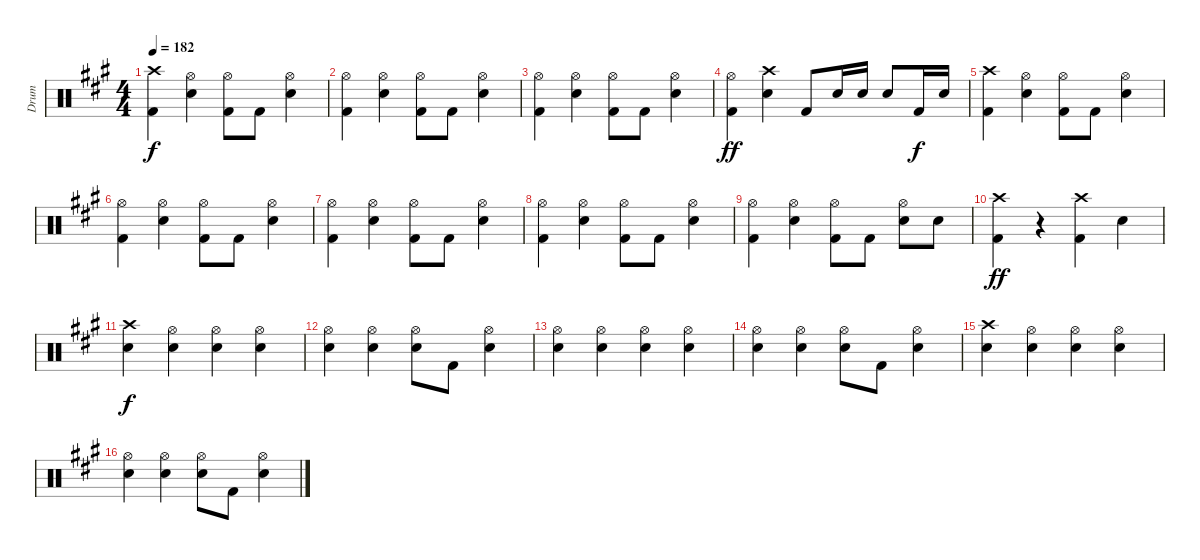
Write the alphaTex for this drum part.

\track ("Drum" "Drum") {instrument percussion}
\staff {score}
\articulation defaults
\ts (4 4)
\tempo 182
\clef neutral
\ks a
("Crash high (hit)" "Kick (hit) 2").4{dy f} ("Hi-Hat (open)" "Snare (hit) 2").4 ("Hi-Hat (open)" "Kick (hit) 2").8 "Kick (hit) 2".8 ("Hi-Hat (open)" "Snare (hit) 2").4 |
("Hi-Hat (open)" "Kick (hit) 2").4 ("Hi-Hat (open)" "Snare (hit) 2").4 ("Hi-Hat (open)" "Kick (hit) 2").8 "Kick (hit) 2".8 ("Hi-Hat (open)" "Snare (hit) 2").4 |
("Hi-Hat (open)" "Kick (hit) 2").4 ("Hi-Hat (open)" "Snare (hit) 2").4 ("Hi-Hat (open)" "Kick (hit) 2").8 "Kick (hit) 2".8 ("Hi-Hat (open)" "Snare (hit) 2").4 |
("Hi-Hat (open)" "Kick (hit) 2").4{dy ff} ("Crash high (hit)" "Snare (hit) 2").4 "Kick (hit) 2".8 "Snare (hit) 2".16 "Snare (hit) 2".16 "Snare (hit) 2".8 "Kick (hit) 2".16{dy f} "Snare (hit) 2".16 |
("Crash high (hit)" "Kick (hit) 2").4 ("Hi-Hat (open)" "Snare (hit) 2").4 ("Hi-Hat (open)" "Kick (hit) 2").8 "Kick (hit) 2".8 ("Hi-Hat (open)" "Snare (hit) 2").4 |
("Hi-Hat (open)" "Kick (hit) 2").4 ("Hi-Hat (open)" "Snare (hit) 2").4 ("Hi-Hat (open)" "Kick (hit) 2").8 "Kick (hit) 2".8 ("Hi-Hat (open)" "Snare (hit) 2").4 |
("Hi-Hat (open)" "Kick (hit) 2").4 ("Hi-Hat (open)" "Snare (hit) 2").4 ("Hi-Hat (open)" "Kick (hit) 2").8 "Kick (hit) 2".8 ("Hi-Hat (open)" "Snare (hit) 2").4 |
("Hi-Hat (open)" "Kick (hit) 2").4 ("Hi-Hat (open)" "Snare (hit) 2").4 ("Hi-Hat (open)" "Kick (hit) 2").8 "Kick (hit) 2".8 ("Hi-Hat (open)" "Snare (hit) 2").4 |
("Hi-Hat (open)" "Kick (hit) 2").4 ("Hi-Hat (open)" "Snare (hit) 2").4 ("Hi-Hat (open)" "Kick (hit) 2").8 "Kick (hit) 2".8 ("Hi-Hat (open)" "Snare (hit) 2").8 "Snare (hit) 2".8 |
("Crash high (hit)" "Kick (hit) 2").4{dy ff} r.4 ("Crash high (hit)" "Kick (hit) 2").4 "Snare (hit) 2".4 |
("Crash high (hit)" "Snare (hit) 2").4{dy f} ("Hi-Hat (open)" "Snare (hit) 2").4 ("Hi-Hat (open)" "Snare (hit) 2").4 ("Hi-Hat (open)" "Snare (hit) 2").4 |
("Hi-Hat (open)" "Snare (hit) 2").4 ("Hi-Hat (open)" "Snare (hit) 2").4 ("Hi-Hat (open)" "Snare (hit) 2").8 "Kick (hit) 2".8 ("Hi-Hat (open)" "Snare (hit) 2").4 |
("Hi-Hat (open)" "Snare (hit) 2").4 ("Hi-Hat (open)" "Snare (hit) 2").4 ("Hi-Hat (open)" "Snare (hit) 2").4 ("Hi-Hat (open)" "Snare (hit) 2").4 |
("Hi-Hat (open)" "Snare (hit) 2").4 ("Hi-Hat (open)" "Snare (hit) 2").4 ("Hi-Hat (open)" "Snare (hit) 2").8 "Kick (hit) 2".8 ("Hi-Hat (open)" "Snare (hit) 2").4 |
("Crash high (hit)" "Snare (hit) 2").4 ("Hi-Hat (open)" "Snare (hit) 2").4 ("Hi-Hat (open)" "Snare (hit) 2").4 ("Hi-Hat (open)" "Snare (hit) 2").4 |
("Hi-Hat (open)" "Snare (hit) 2").4 ("Hi-Hat (open)" "Snare (hit) 2").4 ("Hi-Hat (open)" "Snare (hit) 2").8 "Kick (hit) 2".8 ("Hi-Hat (open)" "Snare (hit) 2").4
